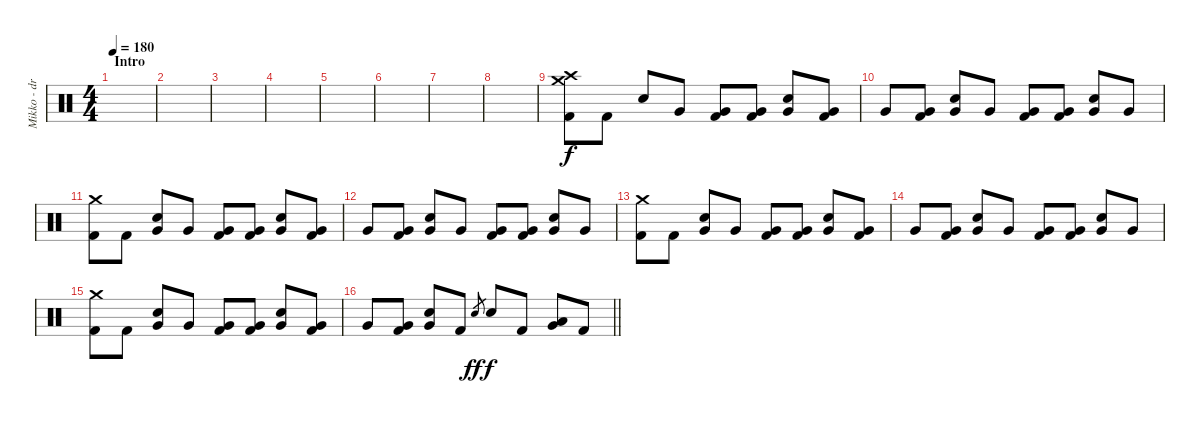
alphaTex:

\track ("Mikko - drums" "Mikko - dr") {instrument percussion}
\staff {score}
\articulation defaults
\ts (4 4)
\section ("" "Intro")
\tempo 180
\clef neutral
\ks c
|
|
|
|
|
|
|
|
("Crash medium (hit)" "Crash high (hit)" "Kick (hit) 2").8 "Kick (hit) 2".8 "Snare (hit) 2".8 "Very Low Tom (hit)".8 ("Very Low Tom (hit)" "Kick (hit) 2").8 ("Very Low Tom (hit)" "Kick (hit) 2").8 ("Snare (hit) 2" "Very Low Tom (hit)").8 ("Very Low Tom (hit)" "Kick (hit) 2").8 |
"Very Low Tom (hit)".8 ("Very Low Tom (hit)" "Kick (hit) 2").8 ("Snare (hit) 2" "Very Low Tom (hit)").8 "Very Low Tom (hit)".8 ("Very Low Tom (hit)" "Kick (hit) 2").8 ("Very Low Tom (hit)" "Kick (hit) 2").8 ("Snare (hit) 2" "Very Low Tom (hit)").8 "Very Low Tom (hit)".8 |
("Crash medium (hit)" "Kick (hit) 2").8 "Kick (hit) 2".8 ("Snare (hit) 2" "Very Low Tom (hit)").8 "Very Low Tom (hit)".8 ("Very Low Tom (hit)" "Kick (hit) 2").8 ("Very Low Tom (hit)" "Kick (hit) 2").8 ("Snare (hit) 2" "Very Low Tom (hit)").8 ("Very Low Tom (hit)" "Kick (hit) 2").8 |
"Very Low Tom (hit)".8 ("Very Low Tom (hit)" "Kick (hit) 2").8 ("Snare (hit) 2" "Very Low Tom (hit)").8 "Very Low Tom (hit)".8 ("Very Low Tom (hit)" "Kick (hit) 2").8 ("Very Low Tom (hit)" "Kick (hit) 2").8 ("Snare (hit) 2" "Very Low Tom (hit)").8 "Very Low Tom (hit)".8 |
("Crash medium (hit)" "Kick (hit) 2").8 "Kick (hit) 2".8 ("Snare (hit) 2" "Very Low Tom (hit)").8 "Very Low Tom (hit)".8 ("Very Low Tom (hit)" "Kick (hit) 2").8 ("Very Low Tom (hit)" "Kick (hit) 2").8 ("Snare (hit) 2" "Very Low Tom (hit)").8 ("Very Low Tom (hit)" "Kick (hit) 2").8 |
"Very Low Tom (hit)".8 ("Very Low Tom (hit)" "Kick (hit) 2").8 ("Snare (hit) 2" "Very Low Tom (hit)").8 "Very Low Tom (hit)".8 ("Very Low Tom (hit)" "Kick (hit) 2").8 ("Very Low Tom (hit)" "Kick (hit) 2").8 ("Snare (hit) 2" "Very Low Tom (hit)").8 "Very Low Tom (hit)".8 |
("Crash medium (hit)" "Kick (hit) 2").8 "Kick (hit) 2".8 ("Snare (hit) 2" "Very Low Tom (hit)").8 "Very Low Tom (hit)".8 ("Very Low Tom (hit)" "Kick (hit) 2").8 ("Very Low Tom (hit)" "Kick (hit) 2").8 ("Snare (hit) 2" "Very Low Tom (hit)").8 ("Very Low Tom (hit)" "Kick (hit) 2").8 |
\barLineRight lightlight "Very Low Tom (hit)".8
("Very Low Tom (hit)" "Kick (hit) 2").8 ("Snare (hit) 2" "Very Low Tom (hit)").8 "Kick (hit) 2".8 "Snare (hit) 2".8{gr dy ff} "Snare (hit) 2".8{dy f} "Kick (hit) 2".8 ("Low Tom (hit)" "Very Low Tom (hit)").8 "Kick (hit) 2".8
